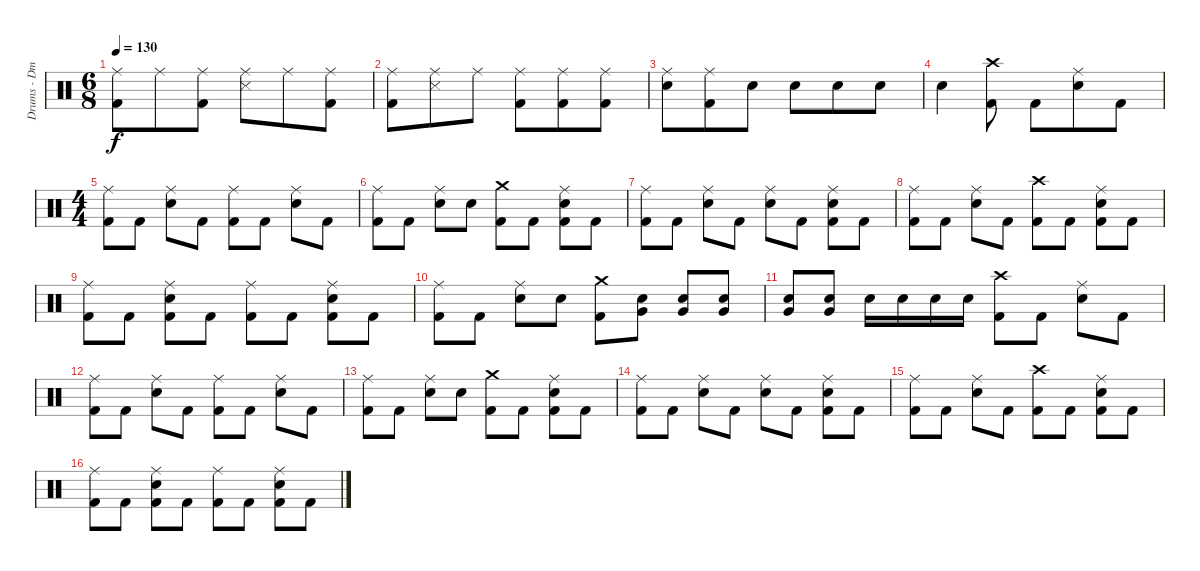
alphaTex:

\track ("Drums - Dmitriy Krivenkov" "Drums - Dm") {instrument percussion}
\staff {score}
\articulation defaults
\ts (6 8)
\tempo 130
\clef neutral
\ks c
("Ride (middle)" "Kick (hit) 2").8{dy f} "Ride (middle)".8 ("Ride (middle)" "Kick (hit) 2").8 ("Snare (side stick) 3" "Ride (middle)").8 "Ride (middle)".8 ("Kick (hit) 2" "Ride (middle)").8 |
("Ride (middle)" "Kick (hit) 2").8 ("Snare (side stick) 3" "Ride (middle)").8 "Ride (middle)".8 ("Kick (hit) 2" "Ride (middle)").8 ("Kick (hit) 2" "Ride (middle)").8 ("Ride (middle)" "Kick (hit) 2").8 |
("Ride (middle)" "Electric Snare (hit)").8 ("Kick (hit) 2" "Ride (middle)").8 "Electric Snare (hit)".8 "Electric Snare (hit)".8 "Electric Snare (hit)".8 "Electric Snare (hit)".8 |
"Electric Snare (hit)".4 ("Crash high (hit)" "Kick (hit) 2").8 "Kick (hit) 2".8 ("Ride (middle)" "Electric Snare (hit)").8 "Kick (hit) 2".8 |
\ts (4 4)
("Ride (middle)" "Kick (hit) 2").8 "Kick (hit) 2".8 ("Ride (middle)" "Electric Snare (hit)").8 "Kick (hit) 2".8 ("Kick (hit) 2" "Ride (middle)").8 "Kick (hit) 2".8 ("Ride (middle)" "Electric Snare (hit)").8 "Kick (hit) 2".8 |
("Kick (hit) 2" "Ride (middle)").8 "Kick (hit) 2".8 ("Electric Snare (hit)" "Ride (middle)").8 "Electric Snare (hit)".8 ("Crash medium (hit)" "Kick (hit) 2").8 "Kick (hit) 2".8 ("Ride (middle)" "Kick (hit) 2" "Electric Snare (hit)").8 "Kick (hit) 2".8 |
("Kick (hit) 2" "Ride (middle)").8 "Kick (hit) 2".8 ("Ride (middle)" "Electric Snare (hit)").8 "Kick (hit) 2".8 ("Ride (middle)" "Electric Snare (hit)").8 "Kick (hit) 2".8 ("Ride (middle)" "Electric Snare (hit)" "Kick (hit) 2").8 "Kick (hit) 2".8 |
("Ride (middle)" "Kick (hit) 2").8 "Kick (hit) 2".8 ("Ride (middle)" "Electric Snare (hit)").8 "Kick (hit) 2".8 ("Kick (hit) 2" "Crash high (hit)").8 "Kick (hit) 2".8 ("Ride (middle)" "Kick (hit) 2" "Electric Snare (hit)").8 "Kick (hit) 2".8 |
("Ride (middle)" "Kick (hit) 2").8 "Kick (hit) 2".8 ("Kick (hit) 2" "Electric Snare (hit)" "Ride (middle)").8 "Kick (hit) 2".8 ("Ride (middle)" "Kick (hit) 2").8 "Kick (hit) 2".8 ("Kick (hit) 2" "Electric Snare (hit)" "Ride (middle)").8 "Kick (hit) 2".8 |
("Kick (hit) 2" "Ride (middle)").8 "Kick (hit) 2".8 ("Ride (middle)" "Electric Snare (hit)").8 "Electric Snare (hit)".8 ("Kick (hit) 2" "Crash medium (hit)").8 ("Electric Snare (hit)" "Very Low Tom (hit)").8 ("Very Low Tom (hit)" "Electric Snare (hit)").8 ("Electric Snare (hit)" "Very Low Tom (hit)").8 |
("Electric Snare (hit)" "Very Low Tom (hit)").8 ("Very Low Tom (hit)" "Electric Snare (hit)").8 "Electric Snare (hit)".16 "Electric Snare (hit)".16 "Electric Snare (hit)".16 "Electric Snare (hit)".16 ("Crash high (hit)" "Kick (hit) 2").8 "Kick (hit) 2".8 ("Ride (middle)" "Electric Snare (hit)").8 "Kick (hit) 2".8 |
("Ride (middle)" "Kick (hit) 2").8 "Kick (hit) 2".8 ("Ride (middle)" "Electric Snare (hit)").8 "Kick (hit) 2".8 ("Kick (hit) 2" "Ride (middle)").8 "Kick (hit) 2".8 ("Ride (middle)" "Electric Snare (hit)").8 "Kick (hit) 2".8 |
("Kick (hit) 2" "Ride (middle)").8 "Kick (hit) 2".8 ("Electric Snare (hit)" "Ride (middle)").8 "Electric Snare (hit)".8 ("Crash medium (hit)" "Kick (hit) 2").8 "Kick (hit) 2".8 ("Ride (middle)" "Kick (hit) 2" "Electric Snare (hit)").8 "Kick (hit) 2".8 |
("Kick (hit) 2" "Ride (middle)").8 "Kick (hit) 2".8 ("Ride (middle)" "Electric Snare (hit)").8 "Kick (hit) 2".8 ("Ride (middle)" "Electric Snare (hit)").8 "Kick (hit) 2".8 ("Ride (middle)" "Electric Snare (hit)" "Kick (hit) 2").8 "Kick (hit) 2".8 |
("Ride (middle)" "Kick (hit) 2").8 "Kick (hit) 2".8 ("Ride (middle)" "Electric Snare (hit)").8 "Kick (hit) 2".8 ("Kick (hit) 2" "Crash high (hit)").8 "Kick (hit) 2".8 ("Ride (middle)" "Kick (hit) 2" "Electric Snare (hit)").8 "Kick (hit) 2".8 |
("Ride (middle)" "Kick (hit) 2").8 "Kick (hit) 2".8 ("Kick (hit) 2" "Electric Snare (hit)" "Ride (middle)").8 "Kick (hit) 2".8 ("Ride (middle)" "Kick (hit) 2").8 "Kick (hit) 2".8 ("Kick (hit) 2" "Electric Snare (hit)" "Ride (middle)").8 "Kick (hit) 2".8
